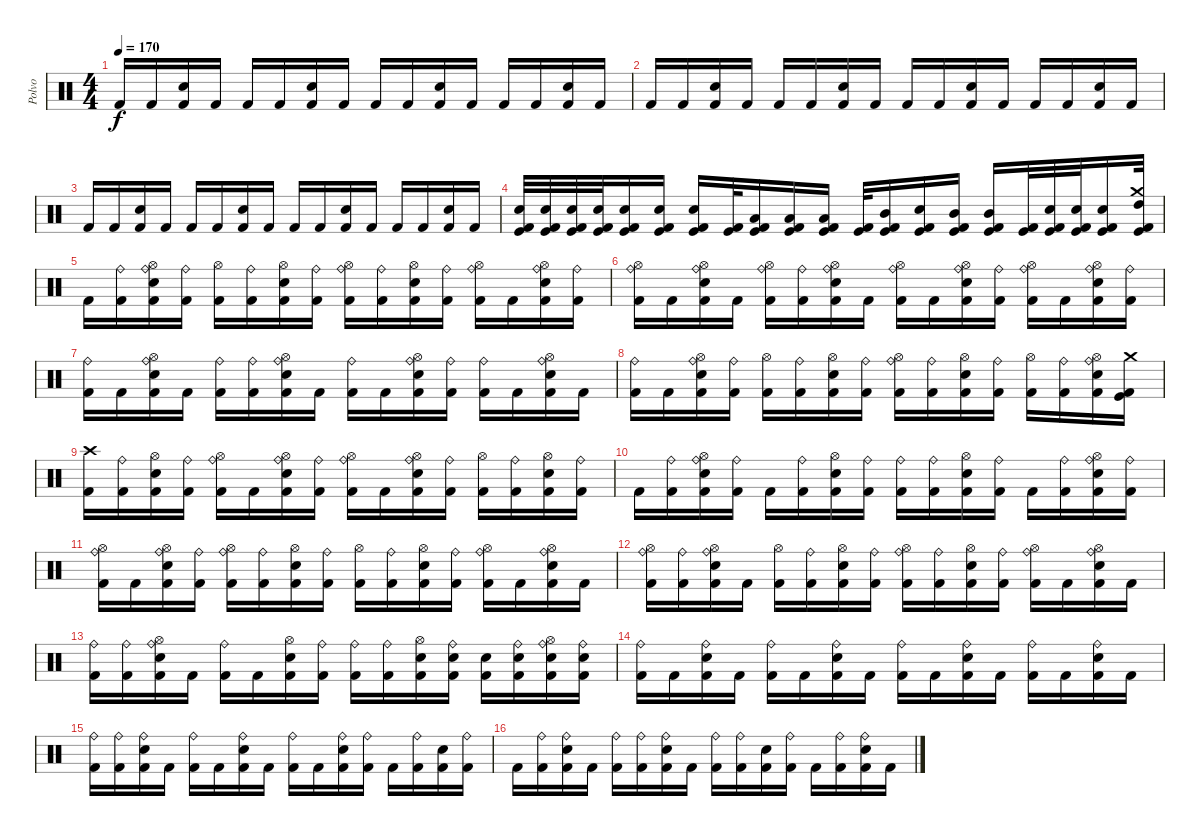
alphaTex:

\track ("Polvo" "Polvo") {instrument percussion}
\staff {score}
\articulation defaults
\ts (4 4)
\tempo 170
\clef neutral
\ks c "Kick (hit) 2".16{dy f} "Kick (hit) 2".16
("Electric Snare (hit)" "Kick (hit) 2").16 "Kick (hit) 2".16 "Kick (hit) 2".16 "Kick (hit) 2".16 ("Electric Snare (hit)" "Kick (hit) 2").16 "Kick (hit) 2".16 "Kick (hit) 2".16 "Kick (hit) 2".16 ("Electric Snare (hit)" "Kick (hit) 2").16 "Kick (hit) 2".16 "Kick (hit) 2".16 "Kick (hit) 2".16 ("Electric Snare (hit)" "Kick (hit) 2").16 "Kick (hit) 2".16 |
"Kick (hit) 2".16 "Kick (hit) 2".16 ("Electric Snare (hit)" "Kick (hit) 2").16 "Kick (hit) 2".16 "Kick (hit) 2".16 "Kick (hit) 2".16 ("Electric Snare (hit)" "Kick (hit) 2").16 "Kick (hit) 2".16 "Kick (hit) 2".16 "Kick (hit) 2".16 ("Electric Snare (hit)" "Kick (hit) 2").16 "Kick (hit) 2".16 "Kick (hit) 2".16 "Kick (hit) 2".16 ("Electric Snare (hit)" "Kick (hit) 2").16 "Kick (hit) 2".16 |
"Kick (hit) 2".16 "Kick (hit) 2".16 ("Electric Snare (hit)" "Kick (hit) 2").16 "Kick (hit) 2".16 "Kick (hit) 2".16 "Kick (hit) 2".16 ("Electric Snare (hit)" "Kick (hit) 2").16 "Kick (hit) 2".16 "Kick (hit) 2".16 "Kick (hit) 2".16 ("Electric Snare (hit)" "Kick (hit) 2").16 "Kick (hit) 2".16 "Kick (hit) 2".16 "Kick (hit) 2".16 ("Electric Snare (hit)" "Kick (hit) 2").16 "Kick (hit) 2".16 |
("Kick (hit)" "Electric Snare (hit)" "Kick (hit) 2").32 ("Kick (hit)" "Electric Snare (hit)" "Kick (hit) 2").32 ("Kick (hit)" "Electric Snare (hit)" "Kick (hit) 2").32 ("Kick (hit)" "Electric Snare (hit)" "Kick (hit) 2").32 ("Kick (hit)" "Electric Snare (hit)" "Kick (hit) 2").16 ("Kick (hit)" "Electric Snare (hit)" "Kick (hit) 2").16 ("Kick (hit)" "Electric Snare (hit)" "Kick (hit) 2").16 ("Kick (hit)" "Kick (hit) 2").32 ("Kick (hit)" "Low Tom (hit)" "Kick (hit) 2").16 ("Kick (hit)" "Low Tom (hit)" "Kick (hit) 2").16 ("Kick (hit)" "Low Tom (hit)" "Kick (hit) 2").16 ("Kick (hit)" "Kick (hit) 2").32 ("Kick (hit)" "Mid Tom (hit)" "Kick (hit) 2").16 ("Kick (hit)" "Electric Snare (hit)" "Kick (hit) 2").16 ("Kick (hit)" "Mid Tom (hit)" "Kick (hit) 2").16 ("Kick (hit)" "Mid Tom (hit)" "Kick (hit) 2").16 ("Kick (hit)" "Kick (hit) 2").32 ("Kick (hit)" "Electric Snare (hit)" "Kick (hit) 2").32 ("Kick (hit)" "Electric Snare (hit)" "Kick (hit) 2").32 ("Kick (hit)" "Electric Snare (hit)" "Kick (hit) 2").16 ("Crash medium (hit)" "Kick (hit)" "High Tom (hit)" "Kick (hit) 2").32 |
"Kick (hit) 2".16 ("Ride (bell)" "Kick (hit) 2").16 ("Ride (bell)" "Hi-Hat (open)" "Electric Snare (hit)" "Kick (hit) 2").16 ("Ride (bell)" "Kick (hit) 2").16 ("Hi-Hat (open)" "Kick (hit) 2").16 ("Ride (bell)" "Kick (hit) 2").16 ("Hi-Hat (open)" "Electric Snare (hit)" "Kick (hit) 2").16 ("Ride (bell)" "Kick (hit) 2").16 ("Ride (bell)" "Hi-Hat (open)" "Kick (hit) 2").16 ("Ride (bell)" "Kick (hit) 2").16 ("Hi-Hat (open)" "Electric Snare (hit)" "Kick (hit) 2").16 ("Ride (bell)" "Kick (hit) 2").16 ("Ride (bell)" "Hi-Hat (open)" "Kick (hit) 2").16 "Kick (hit) 2".16 ("Ride (bell)" "Hi-Hat (open)" "Electric Snare (hit)" "Kick (hit) 2").16 ("Ride (bell)" "Kick (hit) 2").16 |
("Ride (bell)" "Hi-Hat (open)" "Kick (hit) 2").16 "Kick (hit) 2".16 ("Ride (bell)" "Hi-Hat (open)" "Electric Snare (hit)" "Kick (hit) 2").16 "Kick (hit) 2".16 ("Ride (bell)" "Hi-Hat (open)" "Kick (hit) 2").16 ("Ride (bell)" "Kick (hit) 2").16 ("Ride (bell)" "Hi-Hat (open)" "Electric Snare (hit)" "Kick (hit) 2").16 "Kick (hit) 2".16 ("Ride (bell)" "Hi-Hat (open)" "Kick (hit) 2").16 "Kick (hit) 2".16 ("Ride (bell)" "Hi-Hat (open)" "Electric Snare (hit)" "Kick (hit) 2").16 ("Ride (bell)" "Kick (hit) 2").16 ("Ride (bell)" "Hi-Hat (open)" "Kick (hit) 2").16 "Kick (hit) 2".16 ("Ride (bell)" "Hi-Hat (open)" "Electric Snare (hit)" "Kick (hit) 2").16 ("Ride (bell)" "Kick (hit) 2").16 |
("Ride (bell)" "Kick (hit) 2").16 "Kick (hit) 2".16 ("Ride (bell)" "Hi-Hat (open)" "Electric Snare (hit)" "Kick (hit) 2").16 "Kick (hit) 2".16 ("Ride (bell)" "Kick (hit) 2").16 ("Ride (bell)" "Kick (hit) 2").16 ("Ride (bell)" "Hi-Hat (open)" "Electric Snare (hit)" "Kick (hit) 2").16 "Kick (hit) 2".16 ("Ride (bell)" "Kick (hit) 2").16 "Kick (hit) 2".16 ("Ride (bell)" "Hi-Hat (open)" "Electric Snare (hit)" "Kick (hit) 2").16 ("Ride (bell)" "Kick (hit) 2").16 ("Ride (bell)" "Kick (hit) 2").16 "Kick (hit) 2".16 ("Ride (bell)" "Hi-Hat (open)" "Electric Snare (hit)" "Kick (hit) 2").16 "Kick (hit) 2".16 |
("Ride (bell)" "Kick (hit) 2").16 "Kick (hit) 2".16 ("Ride (bell)" "Hi-Hat (open)" "Electric Snare (hit)" "Kick (hit) 2").16 ("Ride (bell)" "Kick (hit) 2").16 ("Hi-Hat (open)" "Kick (hit) 2").16 ("Ride (bell)" "Kick (hit) 2").16 ("Hi-Hat (open)" "Electric Snare (hit)" "Kick (hit) 2").16 ("Ride (bell)" "Kick (hit) 2").16 ("Ride (bell)" "Hi-Hat (open)" "Kick (hit) 2").16 ("Ride (bell)" "Kick (hit) 2").16 ("Hi-Hat (open)" "Electric Snare (hit)" "Kick (hit) 2").16 ("Ride (bell)" "Kick (hit) 2").16 ("Hi-Hat (open)" "Kick (hit) 2").16 ("Ride (bell)" "Kick (hit) 2").16 ("Ride (bell)" "Hi-Hat (open)" "Electric Snare (hit)" "Kick (hit) 2").16 ("Kick (hit)" "Crash medium (hit)" "Kick (hit) 2").16 |
("Crash high (hit)" "Kick (hit) 2").16 ("Ride (bell)" "Kick (hit) 2").16 ("Hi-Hat (open)" "Electric Snare (hit)" "Kick (hit) 2").16 ("Ride (bell)" "Kick (hit) 2").16 ("Ride (bell)" "Hi-Hat (open)" "Kick (hit) 2").16 "Kick (hit) 2".16 ("Ride (bell)" "Hi-Hat (open)" "Electric Snare (hit)" "Kick (hit) 2").16 ("Ride (bell)" "Kick (hit) 2").16 ("Ride (bell)" "Hi-Hat (open)" "Kick (hit) 2").16 "Kick (hit) 2".16 ("Ride (bell)" "Hi-Hat (open)" "Electric Snare (hit)" "Kick (hit) 2").16 ("Ride (bell)" "Kick (hit) 2").16 ("Hi-Hat (open)" "Kick (hit) 2").16 ("Ride (bell)" "Kick (hit) 2").16 ("Hi-Hat (open)" "Electric Snare (hit)" "Kick (hit) 2").16 ("Ride (bell)" "Kick (hit) 2").16 |
"Kick (hit) 2".16 ("Ride (bell)" "Kick (hit) 2").16 ("Ride (bell)" "Hi-Hat (open)" "Electric Snare (hit)" "Kick (hit) 2").16 ("Ride (bell)" "Kick (hit) 2").16 "Kick (hit) 2".16 ("Ride (bell)" "Kick (hit) 2").16 ("Hi-Hat (open)" "Electric Snare (hit)" "Kick (hit) 2").16 ("Ride (bell)" "Kick (hit) 2").16 ("Ride (bell)" "Kick (hit) 2").16 ("Ride (bell)" "Kick (hit) 2").16 ("Hi-Hat (open)" "Electric Snare (hit)" "Kick (hit) 2").16 ("Ride (bell)" "Kick (hit) 2").16 "Kick (hit) 2".16 ("Ride (bell)" "Kick (hit) 2").16 ("Ride (bell)" "Hi-Hat (open)" "Electric Snare (hit)" "Kick (hit) 2").16 ("Ride (bell)" "Kick (hit) 2").16 |
("Ride (bell)" "Hi-Hat (open)" "Kick (hit) 2").16 "Kick (hit) 2".16 ("Ride (bell)" "Hi-Hat (open)" "Electric Snare (hit)" "Kick (hit) 2").16 ("Ride (bell)" "Kick (hit) 2").16 ("Ride (bell)" "Hi-Hat (open)" "Kick (hit) 2").16 ("Ride (bell)" "Kick (hit) 2").16 ("Hi-Hat (open)" "Electric Snare (hit)" "Kick (hit) 2").16 ("Ride (bell)" "Kick (hit) 2").16 ("Hi-Hat (open)" "Kick (hit) 2").16 ("Ride (bell)" "Kick (hit) 2").16 ("Hi-Hat (open)" "Electric Snare (hit)" "Kick (hit) 2").16 ("Ride (bell)" "Kick (hit) 2").16 ("Ride (bell)" "Hi-Hat (open)" "Kick (hit) 2").16 "Kick (hit) 2".16 ("Ride (bell)" "Hi-Hat (open)" "Electric Snare (hit)" "Kick (hit) 2").16 "Kick (hit) 2".16 |
("Ride (bell)" "Hi-Hat (open)" "Kick (hit) 2").16 ("Ride (bell)" "Kick (hit) 2").16 ("Ride (bell)" "Hi-Hat (open)" "Electric Snare (hit)" "Kick (hit) 2").16 "Kick (hit) 2".16 ("Hi-Hat (open)" "Kick (hit) 2").16 ("Ride (bell)" "Kick (hit) 2").16 ("Hi-Hat (open)" "Electric Snare (hit)" "Kick (hit) 2").16 ("Ride (bell)" "Kick (hit) 2").16 ("Ride (bell)" "Hi-Hat (open)" "Kick (hit) 2").16 ("Ride (bell)" "Kick (hit) 2").16 ("Hi-Hat (open)" "Electric Snare (hit)" "Kick (hit) 2").16 ("Ride (bell)" "Kick (hit) 2").16 ("Ride (bell)" "Hi-Hat (open)" "Kick (hit) 2").16 "Kick (hit) 2".16 ("Ride (bell)" "Hi-Hat (open)" "Electric Snare (hit)" "Kick (hit) 2").16 "Kick (hit) 2".16 |
("Ride (bell)" "Kick (hit) 2").16 ("Ride (bell)" "Kick (hit) 2").16 ("Ride (bell)" "Hi-Hat (open)" "Electric Snare (hit)" "Kick (hit) 2").16 "Kick (hit) 2".16 ("Ride (bell)" "Kick (hit) 2").16 "Kick (hit) 2".16 ("Hi-Hat (open)" "Electric Snare (hit)" "Kick (hit) 2").16 ("Ride (bell)" "Kick (hit) 2").16 ("Ride (bell)" "Kick (hit) 2").16 ("Ride (bell)" "Kick (hit) 2").16 ("Hi-Hat (open)" "Electric Snare (hit)" "Kick (hit) 2").16 ("Ride (bell)" "Electric Snare (hit)" "Kick (hit) 2").16 ("Electric Snare (hit)" "Kick (hit) 2").16 ("Ride (bell)" "Electric Snare (hit)" "Kick (hit) 2").16 ("Ride (bell)" "Hi-Hat (open)" "Electric Snare (hit)" "Kick (hit) 2").16 ("Ride (bell)" "Electric Snare (hit)" "Kick (hit) 2").16 |
("Ride (bell)" "Kick (hit) 2").16 "Kick (hit) 2".16 ("Ride (bell)" "Electric Snare (hit)" "Kick (hit) 2").16 "Kick (hit) 2".16 ("Ride (bell)" "Kick (hit) 2").16 "Kick (hit) 2".16 ("Ride (bell)" "Electric Snare (hit)" "Kick (hit) 2").16 "Kick (hit) 2".16 ("Ride (bell)" "Kick (hit) 2").16 "Kick (hit) 2".16 ("Ride (bell)" "Electric Snare (hit)" "Kick (hit) 2").16 "Kick (hit) 2".16 ("Ride (bell)" "Kick (hit) 2").16 "Kick (hit) 2".16 ("Ride (bell)" "Electric Snare (hit)" "Kick (hit) 2").16 "Kick (hit) 2".16 |
("Ride (bell)" "Kick (hit) 2").16 ("Ride (bell)" "Kick (hit) 2").16 ("Ride (bell)" "Electric Snare (hit)" "Kick (hit) 2").16 "Kick (hit) 2".16 ("Ride (bell)" "Kick (hit) 2").16 "Kick (hit) 2".16 ("Ride (bell)" "Electric Snare (hit)" "Kick (hit) 2").16 "Kick (hit) 2".16 ("Ride (bell)" "Kick (hit) 2").16 "Kick (hit) 2".16 ("Ride (bell)" "Electric Snare (hit)" "Kick (hit) 2").16 ("Ride (bell)" "Kick (hit) 2").16 "Kick (hit) 2".16 ("Ride (bell)" "Kick (hit) 2").16 ("Electric Snare (hit)" "Kick (hit) 2").16 ("Ride (bell)" "Kick (hit) 2").16 |
"Kick (hit) 2".16 ("Ride (bell)" "Kick (hit) 2").16 ("Ride (bell)" "Electric Snare (hit)" "Kick (hit) 2").16 "Kick (hit) 2".16 ("Ride (bell)" "Kick (hit) 2").16 ("Ride (bell)" "Kick (hit) 2").16 ("Ride (bell)" "Electric Snare (hit)" "Kick (hit) 2").16 "Kick (hit) 2".16 ("Ride (bell)" "Kick (hit) 2").16 ("Ride (bell)" "Kick (hit) 2").16 ("Electric Snare (hit)" "Kick (hit) 2").16 ("Ride (bell)" "Kick (hit) 2").16 "Kick (hit) 2".16 ("Ride (bell)" "Kick (hit) 2").16 ("Ride (bell)" "Electric Snare (hit)" "Kick (hit) 2").16 "Kick (hit) 2".16
